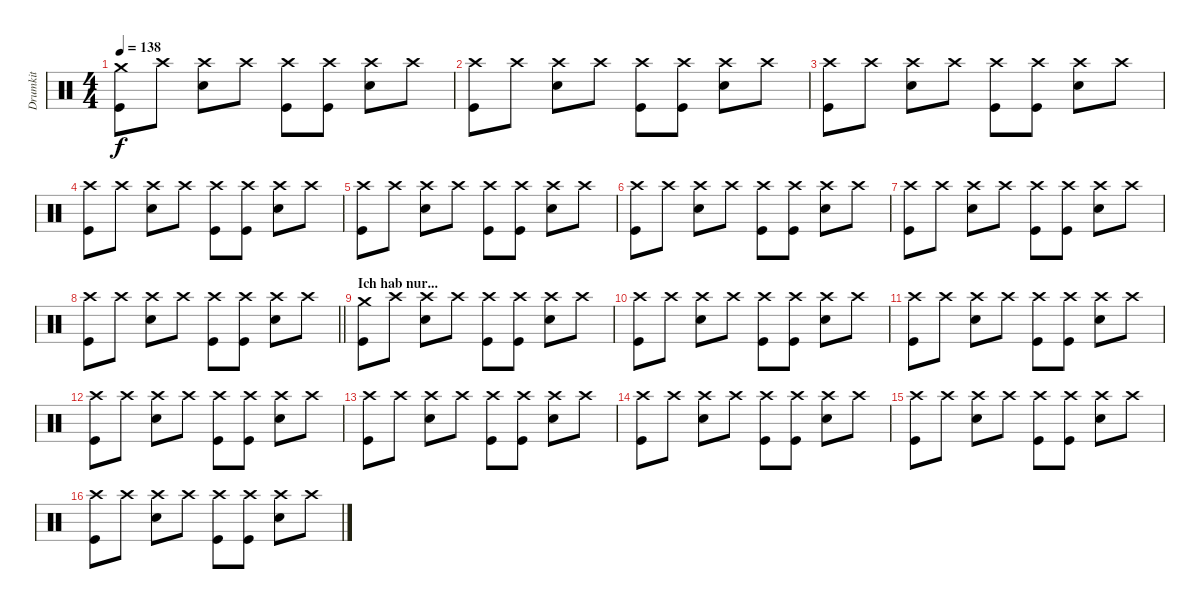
\track ("Drumkit" "Drumkit") {instrument percussion}
\staff {score}
\articulation defaults
\ts (4 4)
\tempo 138
\clef neutral
\ks c
("Crash medium (hit)" "Kick (hit)").8{dy f} "Crash high (hit)".8 ("Crash high (hit)" "Snare (hit) 2").8 "Crash high (hit)".8 ("Crash high (hit)" "Kick (hit)").8 ("Crash high (hit)" "Kick (hit)").8 ("Crash high (hit)" "Snare (hit) 2").8 "Crash high (hit)".8 |
("Crash high (hit)" "Kick (hit)").8 "Crash high (hit)".8 ("Crash high (hit)" "Snare (hit) 2").8 "Crash high (hit)".8 ("Crash high (hit)" "Kick (hit)").8 ("Crash high (hit)" "Kick (hit)").8 ("Crash high (hit)" "Snare (hit) 2").8 "Crash high (hit)".8 |
("Crash high (hit)" "Kick (hit)").8 "Crash high (hit)".8 ("Crash high (hit)" "Snare (hit) 2").8 "Crash high (hit)".8 ("Crash high (hit)" "Kick (hit)").8 ("Crash high (hit)" "Kick (hit)").8 ("Crash high (hit)" "Snare (hit) 2").8 "Crash high (hit)".8 |
("Crash high (hit)" "Kick (hit)").8 "Crash high (hit)".8 ("Crash high (hit)" "Snare (hit) 2").8 "Crash high (hit)".8 ("Crash high (hit)" "Kick (hit)").8 ("Crash high (hit)" "Kick (hit)").8 ("Crash high (hit)" "Snare (hit) 2").8 "Crash high (hit)".8 |
("Crash high (hit)" "Kick (hit)").8 "Crash high (hit)".8 ("Crash high (hit)" "Snare (hit) 2").8 "Crash high (hit)".8 ("Crash high (hit)" "Kick (hit)").8 ("Crash high (hit)" "Kick (hit)").8 ("Crash high (hit)" "Snare (hit) 2").8 "Crash high (hit)".8 |
("Crash high (hit)" "Kick (hit)").8 "Crash high (hit)".8 ("Crash high (hit)" "Snare (hit) 2").8 "Crash high (hit)".8 ("Crash high (hit)" "Kick (hit)").8 ("Crash high (hit)" "Kick (hit)").8 ("Crash high (hit)" "Snare (hit) 2").8 "Crash high (hit)".8 |
("Crash high (hit)" "Kick (hit)").8 "Crash high (hit)".8 ("Crash high (hit)" "Snare (hit) 2").8 "Crash high (hit)".8 ("Crash high (hit)" "Kick (hit)").8 ("Crash high (hit)" "Kick (hit)").8 ("Crash high (hit)" "Snare (hit) 2").8 "Crash high (hit)".8 |
\barLineRight lightlight
("Crash high (hit)" "Kick (hit)").8 "Crash high (hit)".8 ("Crash high (hit)" "Snare (hit) 2").8 "Crash high (hit)".8 ("Crash high (hit)" "Kick (hit)").8 ("Crash high (hit)" "Kick (hit)").8 ("Crash high (hit)" "Snare (hit) 2").8 "Crash high (hit)".8 |
\section ("" "Ich hab nur...")
("Crash medium (hit)" "Kick (hit)").8 "Crash high (hit)".8 ("Crash high (hit)" "Snare (hit) 2").8 "Crash high (hit)".8 ("Crash high (hit)" "Kick (hit)").8 ("Crash high (hit)" "Kick (hit)").8 ("Crash high (hit)" "Snare (hit) 2").8 "Crash high (hit)".8 |
("Crash high (hit)" "Kick (hit)").8 "Crash high (hit)".8 ("Crash high (hit)" "Snare (hit) 2").8 "Crash high (hit)".8 ("Crash high (hit)" "Kick (hit)").8 ("Crash high (hit)" "Kick (hit)").8 ("Crash high (hit)" "Snare (hit) 2").8 "Crash high (hit)".8 |
("Crash high (hit)" "Kick (hit)").8 "Crash high (hit)".8 ("Crash high (hit)" "Snare (hit) 2").8 "Crash high (hit)".8 ("Crash high (hit)" "Kick (hit)").8 ("Crash high (hit)" "Kick (hit)").8 ("Crash high (hit)" "Snare (hit) 2").8 "Crash high (hit)".8 |
("Crash high (hit)" "Kick (hit)").8 "Crash high (hit)".8 ("Crash high (hit)" "Snare (hit) 2").8 "Crash high (hit)".8 ("Crash high (hit)" "Kick (hit)").8 ("Crash high (hit)" "Kick (hit)").8 ("Crash high (hit)" "Snare (hit) 2").8 "Crash high (hit)".8 |
("Crash high (hit)" "Kick (hit)").8 "Crash high (hit)".8 ("Crash high (hit)" "Snare (hit) 2").8 "Crash high (hit)".8 ("Crash high (hit)" "Kick (hit)").8 ("Crash high (hit)" "Kick (hit)").8 ("Crash high (hit)" "Snare (hit) 2").8 "Crash high (hit)".8 |
("Crash high (hit)" "Kick (hit)").8 "Crash high (hit)".8 ("Crash high (hit)" "Snare (hit) 2").8 "Crash high (hit)".8 ("Crash high (hit)" "Kick (hit)").8 ("Crash high (hit)" "Kick (hit)").8 ("Crash high (hit)" "Snare (hit) 2").8 "Crash high (hit)".8 |
("Crash high (hit)" "Kick (hit)").8 "Crash high (hit)".8 ("Crash high (hit)" "Snare (hit) 2").8 "Crash high (hit)".8 ("Crash high (hit)" "Kick (hit)").8 ("Crash high (hit)" "Kick (hit)").8 ("Crash high (hit)" "Snare (hit) 2").8 "Crash high (hit)".8 |
("Crash high (hit)" "Kick (hit)").8 "Crash high (hit)".8 ("Crash high (hit)" "Snare (hit) 2").8 "Crash high (hit)".8 ("Crash high (hit)" "Kick (hit)").8 ("Crash high (hit)" "Kick (hit)").8 ("Crash high (hit)" "Snare (hit) 2").8 "Crash high (hit)".8
